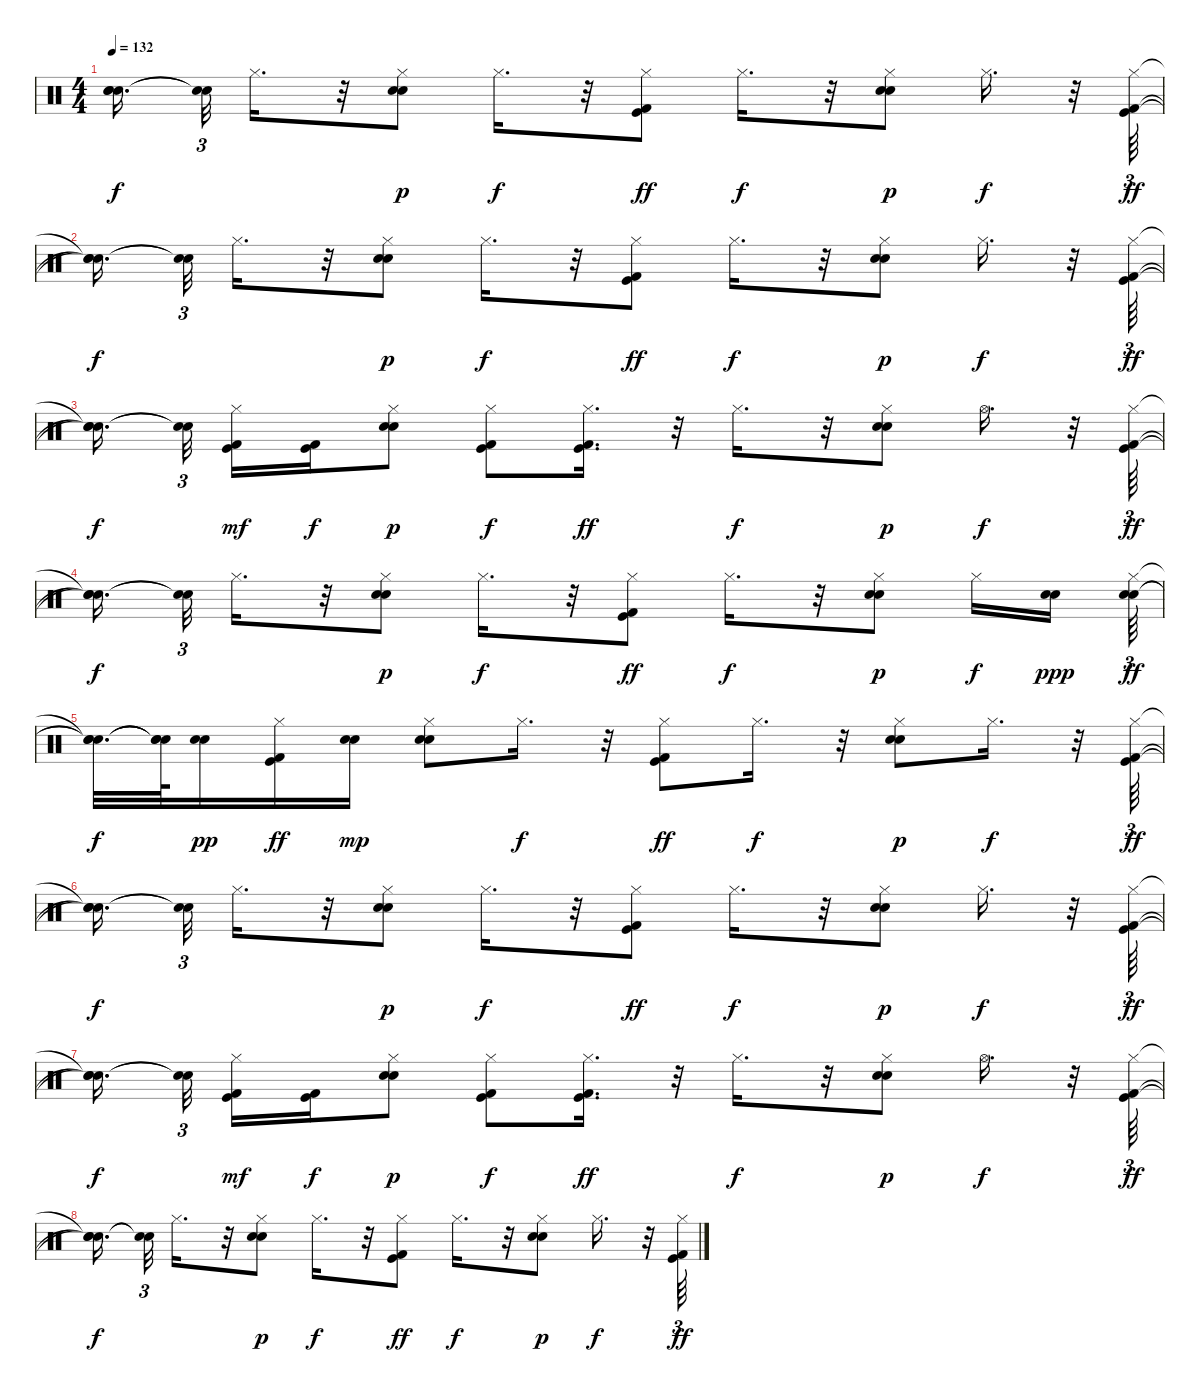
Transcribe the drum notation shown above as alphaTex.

\track "" {instrument percussion}
\staff {score}
\articulation defaults
\ts (4 4)
\tempo 132
\clef neutral
\ks c
("Snare (hit)"{t} "Snare (hit)"{t} "Snare (hit)"{t}).16{d dy f beam splitsecondary} ("Snare (hit)"{t} "Snare (hit)"{t}).32{tu (3 2)} "Hi-Hat (closed)".16{d} r.32 ("Electric Snare (hit)" "Snare (hit) 2" "Hi-Hat (closed)").8{dy p} "Hi-Hat (closed)".16{d dy f} r.32 ("Kick (hit) 2" "Kick (hit)" "Hi-Hat (closed)").8{dy ff} "Hi-Hat (closed)".16{d dy f} r.32 ("Electric Snare (hit)" "Snare (hit) 2" "Hi-Hat (closed)").8{dy p} "Hi-Hat (closed)".16{d dy f} r.32 ("Kick (hit) 2" "Kick (hit)" "Hi-Hat (closed)").64{tu (3 2) dy ff} |
("Snare (hit)"{t} "Snare (hit)"{t} "Snare (hit)"{t}).16{d dy f beam splitsecondary} ("Snare (hit)"{t} "Snare (hit)"{t}).32{tu (3 2)} "Hi-Hat (closed)".16{d} r.32 ("Electric Snare (hit)" "Snare (hit) 2" "Hi-Hat (closed)").8{dy p} "Hi-Hat (closed)".16{d dy f} r.32 ("Kick (hit) 2" "Kick (hit)" "Hi-Hat (closed)").8{dy ff} "Hi-Hat (closed)".16{d dy f} r.32 ("Electric Snare (hit)" "Snare (hit) 2" "Hi-Hat (closed)").8{dy p} "Hi-Hat (closed)".16{d dy f} r.32 ("Kick (hit) 2" "Kick (hit)" "Hi-Hat (closed)").64{tu (3 2) dy ff} |
("Snare (hit)"{t} "Snare (hit)"{t} "Snare (hit)"{t}).16{d dy f beam splitsecondary} ("Snare (hit)"{t} "Snare (hit)"{t}).32{tu (3 2) beam splitsecondary} ("Kick (hit) 2" "Kick (hit)" "Hi-Hat (closed)").16{dy mf} ("Kick (hit)" "Kick (hit) 2").16{dy f} ("Electric Snare (hit)" "Snare (hit) 2" "Hi-Hat (closed)").8{dy p} ("Kick (hit)" "Kick (hit) 2" "Hi-Hat (closed)").8{dy f} ("Kick (hit) 2" "Kick (hit)" "Hi-Hat (closed)").16{d dy ff} r.32 "Hi-Hat (closed)".16{d dy f} r.32 ("Electric Snare (hit)" "Snare (hit) 2" "Hi-Hat (closed)").8{dy p} "Hi-Hat (open)".16{d dy f} r.32 ("Kick (hit) 2" "Kick (hit)" "Hi-Hat (closed)").64{tu (3 2) dy ff} |
("Snare (hit)"{t} "Snare (hit)"{t} "Snare (hit)"{t}).16{d dy f beam splitsecondary} ("Snare (hit)"{t} "Snare (hit)"{t}).32{tu (3 2)} "Hi-Hat (closed)".16{d} r.32 ("Electric Snare (hit)" "Snare (hit) 2" "Hi-Hat (closed)").8{dy p} "Hi-Hat (closed)".16{d dy f} r.32 ("Kick (hit) 2" "Kick (hit)" "Hi-Hat (closed)").8{dy ff} "Hi-Hat (closed)".16{d dy f} r.32 ("Electric Snare (hit)" "Snare (hit) 2" "Hi-Hat (closed)").8{dy p} "Hi-Hat (closed)".16{dy f} ("Electric Snare (hit)" "Snare (hit) 2").16{dy ppp beam splitsecondary} ("Snare (hit) 2" "Electric Snare (hit)" "Hi-Hat (closed)").64{tu (3 2) dy ff} |
("Snare (hit)"{t} "Snare (hit)"{t} "Snare (hit)"{t}).32{d dy f} ("Snare (hit)"{t} "Snare (hit)"{t} "Snare (hit)"{t}).64 ("Electric Snare (hit)" "Snare (hit) 2").16{dy pp} ("Kick (hit) 2" "Kick (hit)" "Hi-Hat (closed)").16{dy ff} ("Snare (hit) 2" "Electric Snare (hit)").16{dy mp} ("Electric Snare (hit)" "Snare (hit) 2" "Hi-Hat (closed)").8 "Hi-Hat (closed)".16{d dy f} r.32 ("Kick (hit) 2" "Kick (hit)" "Hi-Hat (closed)").8{dy ff} "Hi-Hat (closed)".16{d dy f} r.32 ("Electric Snare (hit)" "Snare (hit) 2" "Hi-Hat (closed)").8{dy p} "Hi-Hat (closed)".16{d dy f} r.32 ("Kick (hit) 2" "Kick (hit)" "Hi-Hat (closed)").64{tu (3 2) dy ff} |
("Snare (hit)"{t} "Snare (hit)"{t} "Snare (hit)"{t}).16{d dy f beam splitsecondary} ("Snare (hit)"{t} "Snare (hit)"{t}).32{tu (3 2)} "Hi-Hat (closed)".16{d} r.32 ("Electric Snare (hit)" "Snare (hit) 2" "Hi-Hat (closed)").8{dy p} "Hi-Hat (closed)".16{d dy f} r.32 ("Kick (hit) 2" "Kick (hit)" "Hi-Hat (closed)").8{dy ff} "Hi-Hat (closed)".16{d dy f} r.32 ("Electric Snare (hit)" "Snare (hit) 2" "Hi-Hat (closed)").8{dy p} "Hi-Hat (closed)".16{d dy f} r.32 ("Kick (hit) 2" "Kick (hit)" "Hi-Hat (closed)").64{tu (3 2) dy ff} |
("Snare (hit)"{t} "Snare (hit)"{t} "Snare (hit)"{t}).16{d dy f beam splitsecondary} ("Snare (hit)"{t} "Snare (hit)"{t}).32{tu (3 2) beam splitsecondary} ("Kick (hit) 2" "Kick (hit)" "Hi-Hat (closed)").16{dy mf} ("Kick (hit)" "Kick (hit) 2").16{dy f} ("Electric Snare (hit)" "Snare (hit) 2" "Hi-Hat (closed)").8{dy p} ("Kick (hit)" "Kick (hit) 2" "Hi-Hat (closed)").8{dy f} ("Kick (hit) 2" "Kick (hit)" "Hi-Hat (closed)").16{d dy ff} r.32 "Hi-Hat (closed)".16{d dy f} r.32 ("Electric Snare (hit)" "Snare (hit) 2" "Hi-Hat (closed)").8{dy p} "Hi-Hat (open)".16{d dy f} r.32 ("Kick (hit) 2" "Kick (hit)" "Hi-Hat (closed)").64{tu (3 2) dy ff} |
("Snare (hit)"{t} "Snare (hit)"{t} "Snare (hit)"{t}).16{d dy f beam splitsecondary} ("Snare (hit)"{t} "Snare (hit)"{t}).32{tu (3 2)} "Hi-Hat (closed)".16{d} r.32 ("Electric Snare (hit)" "Snare (hit) 2" "Hi-Hat (closed)").8{dy p} "Hi-Hat (closed)".16{d dy f} r.32 ("Kick (hit) 2" "Kick (hit)" "Hi-Hat (closed)").8{dy ff} "Hi-Hat (closed)".16{d dy f} r.32 ("Electric Snare (hit)" "Snare (hit) 2" "Hi-Hat (closed)").8{dy p} "Hi-Hat (closed)".16{d dy f} r.32 ("Kick (hit) 2" "Kick (hit)" "Hi-Hat (closed)").64{tu (3 2) dy ff}
